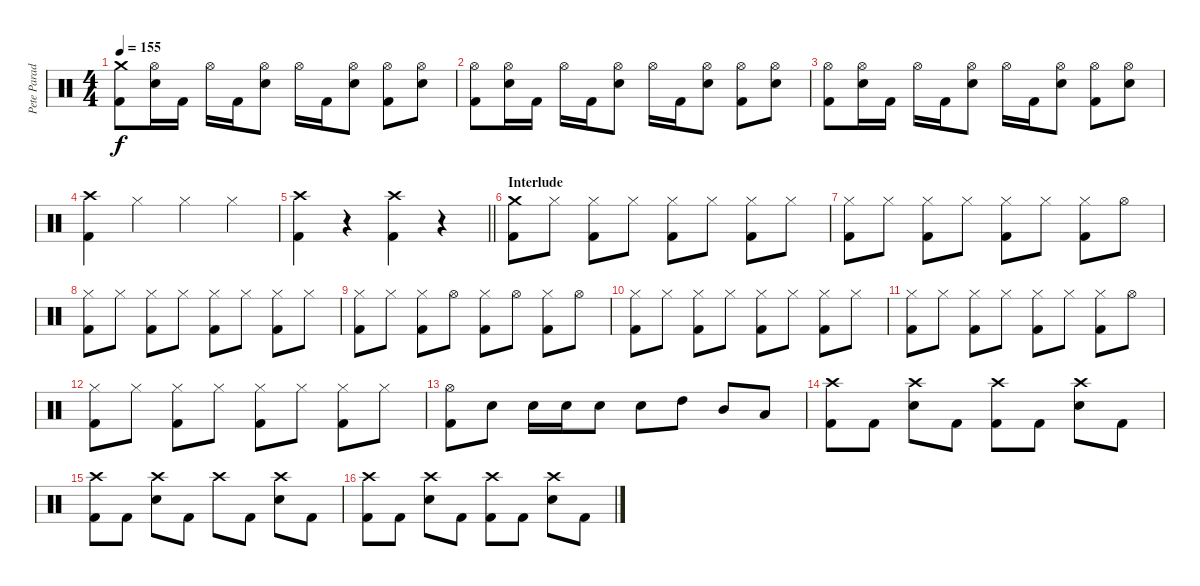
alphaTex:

\track ("Pete Parada - Drums" "Pete Parad") {instrument percussion}
\staff {score}
\articulation defaults
\ts (4 4)
\tempo 155
\clef neutral
\ks c
("Crash medium (hit)" "Kick (hit) 2").8{dy f} ("Hi-Hat (open)" "Electric Snare (hit)").16 "Kick (hit) 2".16 "Hi-Hat (open)".16 "Kick (hit) 2".16 ("Hi-Hat (open)" "Electric Snare (hit)").8 "Hi-Hat (open)".16 "Kick (hit) 2".16 ("Hi-Hat (open)" "Electric Snare (hit)").8 ("Hi-Hat (open)" "Kick (hit) 2").8 ("Hi-Hat (open)" "Electric Snare (hit)").8 |
("Hi-Hat (open)" "Kick (hit) 2").8 ("Hi-Hat (open)" "Electric Snare (hit)").16 "Kick (hit) 2".16 "Hi-Hat (open)".16 "Kick (hit) 2".16 ("Hi-Hat (open)" "Electric Snare (hit)").8 "Hi-Hat (open)".16 "Kick (hit) 2".16 ("Hi-Hat (open)" "Electric Snare (hit)").8 ("Hi-Hat (open)" "Kick (hit) 2").8 ("Hi-Hat (open)" "Electric Snare (hit)").8 |
("Hi-Hat (open)" "Kick (hit) 2").8 ("Hi-Hat (open)" "Electric Snare (hit)").16 "Kick (hit) 2".16 "Hi-Hat (open)".16 "Kick (hit) 2".16 ("Hi-Hat (open)" "Electric Snare (hit)").8 "Hi-Hat (open)".16 "Kick (hit) 2".16 ("Hi-Hat (open)" "Electric Snare (hit)").8 ("Hi-Hat (open)" "Kick (hit) 2").8 ("Hi-Hat (open)" "Electric Snare (hit)").8 |
("Crash high (hit)" "Kick (hit) 2").4 "Hi-Hat (closed)".4 "Hi-Hat (closed)".4 "Hi-Hat (closed)".4 |
\barLineRight lightlight
("Crash high (hit)" "Kick (hit) 2").4 r.4 ("Crash high (hit)" "Kick (hit) 2").4 r.4 |
\section ("" "Interlude")
("Crash medium (hit)" "Kick (hit) 2").8 "Hi-Hat (closed)".8 ("Hi-Hat (closed)" "Kick (hit) 2").8 "Hi-Hat (closed)".8 ("Hi-Hat (closed)" "Kick (hit) 2").8 "Hi-Hat (closed)".8 ("Hi-Hat (closed)" "Kick (hit) 2").8 "Hi-Hat (closed)".8 |
("Hi-Hat (closed)" "Kick (hit) 2").8 "Hi-Hat (closed)".8 ("Hi-Hat (closed)" "Kick (hit) 2").8 "Hi-Hat (closed)".8 ("Hi-Hat (closed)" "Kick (hit) 2").8 "Hi-Hat (closed)".8 ("Hi-Hat (closed)" "Kick (hit) 2").8 "Hi-Hat (open)".8 |
("Hi-Hat (closed)" "Kick (hit) 2").8 "Hi-Hat (closed)".8 ("Hi-Hat (closed)" "Kick (hit) 2").8 "Hi-Hat (closed)".8 ("Hi-Hat (closed)" "Kick (hit) 2").8 "Hi-Hat (closed)".8 ("Hi-Hat (closed)" "Kick (hit) 2").8 "Hi-Hat (closed)".8 |
("Hi-Hat (closed)" "Kick (hit) 2").8 "Hi-Hat (closed)".8 ("Hi-Hat (closed)" "Kick (hit) 2").8 "Hi-Hat (open)".8 ("Hi-Hat (closed)" "Kick (hit) 2").8 "Hi-Hat (open)".8 ("Hi-Hat (closed)" "Kick (hit) 2").8 "Hi-Hat (open)".8 |
("Hi-Hat (closed)" "Kick (hit) 2").8 "Hi-Hat (closed)".8 ("Hi-Hat (closed)" "Kick (hit) 2").8 "Hi-Hat (closed)".8 ("Hi-Hat (closed)" "Kick (hit) 2").8 "Hi-Hat (closed)".8 ("Hi-Hat (closed)" "Kick (hit) 2").8 "Hi-Hat (closed)".8 |
("Hi-Hat (closed)" "Kick (hit) 2").8 "Hi-Hat (closed)".8 ("Hi-Hat (closed)" "Kick (hit) 2").8 "Hi-Hat (closed)".8 ("Hi-Hat (closed)" "Kick (hit) 2").8 "Hi-Hat (closed)".8 ("Hi-Hat (closed)" "Kick (hit) 2").8 "Hi-Hat (open)".8 |
("Hi-Hat (closed)" "Kick (hit) 2").8 "Hi-Hat (closed)".8 ("Hi-Hat (closed)" "Kick (hit) 2").8 "Hi-Hat (closed)".8 ("Hi-Hat (closed)" "Kick (hit) 2").8 "Hi-Hat (closed)".8 ("Hi-Hat (closed)" "Kick (hit) 2").8 "Hi-Hat (closed)".8 |
("Hi-Hat (open)" "Kick (hit) 2").8 "Electric Snare (hit)".8 "Electric Snare (hit)".16 "Electric Snare (hit)".16 "Electric Snare (hit)".8 "Electric Snare (hit)".8 "High Tom (hit)".8 "Mid Tom (hit)".8 "Low Tom (hit)".8 |
("Crash high (hit)" "Kick (hit) 2").8 "Kick (hit) 2".8 ("Crash high (hit)" "Electric Snare (hit)").8 "Kick (hit) 2".8 ("Crash high (hit)" "Kick (hit) 2").8 "Kick (hit) 2".8 ("Crash high (hit)" "Electric Snare (hit)").8 "Kick (hit) 2".8 |
("Crash high (hit)" "Kick (hit) 2").8 "Kick (hit) 2".8 ("Crash high (hit)" "Electric Snare (hit)").8 "Kick (hit) 2".8 "Crash high (hit)".8 "Kick (hit) 2".8 ("Crash high (hit)" "Electric Snare (hit)").8 "Kick (hit) 2".8 |
("Crash high (hit)" "Kick (hit) 2").8 "Kick (hit) 2".8 ("Crash high (hit)" "Electric Snare (hit)").8 "Kick (hit) 2".8 ("Crash high (hit)" "Kick (hit) 2").8 "Kick (hit) 2".8 ("Crash high (hit)" "Electric Snare (hit)").8 "Kick (hit) 2".8
